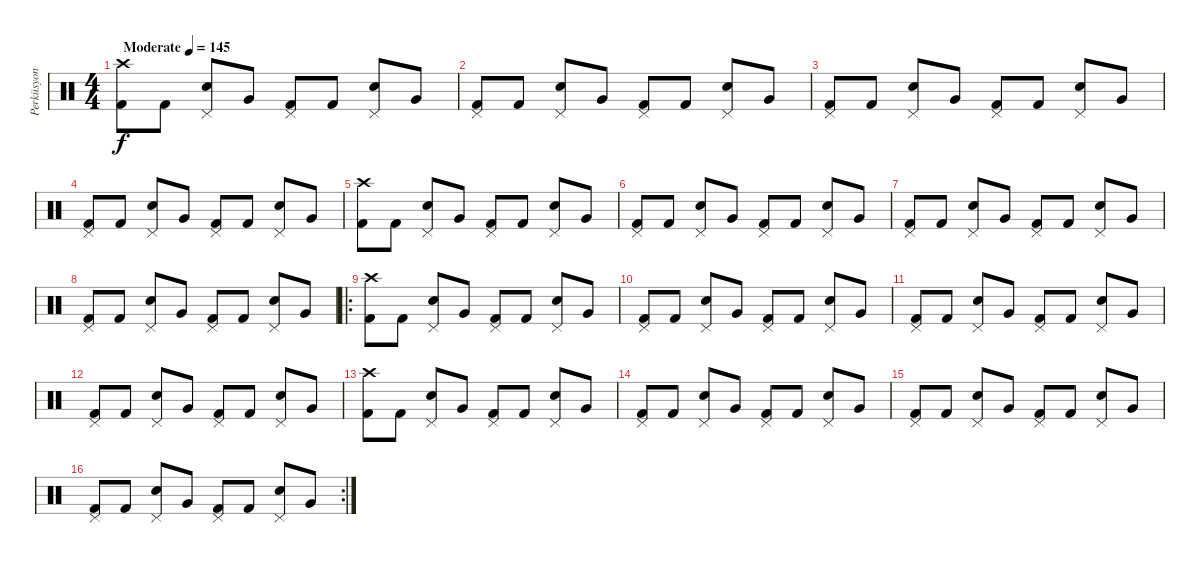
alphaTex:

\track ("Perküsyon" "Perküsyon") {instrument percussion}
\staff {score}
\articulation defaults
\ts (4 4)
\tempo (145 "Moderate")
\clef neutral
\ks c
("Crash high (hit)" "Kick (hit) 2").8{dy f} "Kick (hit) 2".8 ("Pedal Hi-Hat (hit)" "Snare (hit) 2").8 "Very Low Tom (hit)".8 ("Pedal Hi-Hat (hit)" "Kick (hit) 2").8 "Kick (hit) 2".8 ("Pedal Hi-Hat (hit)" "Snare (hit) 2").8 "Very Low Tom (hit)".8 |
("Pedal Hi-Hat (hit)" "Kick (hit) 2").8 "Kick (hit) 2".8 ("Pedal Hi-Hat (hit)" "Snare (hit) 2").8 "Very Low Tom (hit)".8 ("Pedal Hi-Hat (hit)" "Kick (hit) 2").8 "Kick (hit) 2".8 ("Pedal Hi-Hat (hit)" "Snare (hit) 2").8 "Very Low Tom (hit)".8 |
("Pedal Hi-Hat (hit)" "Kick (hit) 2").8 "Kick (hit) 2".8 ("Pedal Hi-Hat (hit)" "Snare (hit) 2").8 "Very Low Tom (hit)".8 ("Pedal Hi-Hat (hit)" "Kick (hit) 2").8 "Kick (hit) 2".8 ("Pedal Hi-Hat (hit)" "Snare (hit) 2").8 "Very Low Tom (hit)".8 |
("Pedal Hi-Hat (hit)" "Kick (hit) 2").8 "Kick (hit) 2".8 ("Pedal Hi-Hat (hit)" "Snare (hit) 2").8 "Very Low Tom (hit)".8 ("Pedal Hi-Hat (hit)" "Kick (hit) 2").8 "Kick (hit) 2".8 ("Pedal Hi-Hat (hit)" "Snare (hit) 2").8 "Very Low Tom (hit)".8 |
("Crash high (hit)" "Kick (hit) 2").8 "Kick (hit) 2".8 ("Pedal Hi-Hat (hit)" "Snare (hit) 2").8 "Very Low Tom (hit)".8 ("Pedal Hi-Hat (hit)" "Kick (hit) 2").8 "Kick (hit) 2".8 ("Pedal Hi-Hat (hit)" "Snare (hit) 2").8 "Very Low Tom (hit)".8 |
("Pedal Hi-Hat (hit)" "Kick (hit) 2").8 "Kick (hit) 2".8 ("Pedal Hi-Hat (hit)" "Snare (hit) 2").8 "Very Low Tom (hit)".8 ("Pedal Hi-Hat (hit)" "Kick (hit) 2").8 "Kick (hit) 2".8 ("Pedal Hi-Hat (hit)" "Snare (hit) 2").8 "Very Low Tom (hit)".8 |
("Pedal Hi-Hat (hit)" "Kick (hit) 2").8 "Kick (hit) 2".8 ("Pedal Hi-Hat (hit)" "Snare (hit) 2").8 "Very Low Tom (hit)".8 ("Pedal Hi-Hat (hit)" "Kick (hit) 2").8 "Kick (hit) 2".8 ("Pedal Hi-Hat (hit)" "Snare (hit) 2").8 "Very Low Tom (hit)".8 |
("Pedal Hi-Hat (hit)" "Kick (hit) 2").8 "Kick (hit) 2".8 ("Pedal Hi-Hat (hit)" "Snare (hit) 2").8 "Very Low Tom (hit)".8 ("Pedal Hi-Hat (hit)" "Kick (hit) 2").8 "Kick (hit) 2".8 ("Pedal Hi-Hat (hit)" "Snare (hit) 2").8 "Very Low Tom (hit)".8 |
\ro
("Crash high (hit)" "Kick (hit) 2").8 "Kick (hit) 2".8 ("Pedal Hi-Hat (hit)" "Snare (hit) 2").8 "Very Low Tom (hit)".8 ("Pedal Hi-Hat (hit)" "Kick (hit) 2").8 "Kick (hit) 2".8 ("Pedal Hi-Hat (hit)" "Snare (hit) 2").8 "Very Low Tom (hit)".8 |
("Pedal Hi-Hat (hit)" "Kick (hit) 2").8 "Kick (hit) 2".8 ("Pedal Hi-Hat (hit)" "Snare (hit) 2").8 "Very Low Tom (hit)".8 ("Pedal Hi-Hat (hit)" "Kick (hit) 2").8 "Kick (hit) 2".8 ("Pedal Hi-Hat (hit)" "Snare (hit) 2").8 "Very Low Tom (hit)".8 |
("Pedal Hi-Hat (hit)" "Kick (hit) 2").8 "Kick (hit) 2".8 ("Pedal Hi-Hat (hit)" "Snare (hit) 2").8 "Very Low Tom (hit)".8 ("Pedal Hi-Hat (hit)" "Kick (hit) 2").8 "Kick (hit) 2".8 ("Pedal Hi-Hat (hit)" "Snare (hit) 2").8 "Very Low Tom (hit)".8 |
("Pedal Hi-Hat (hit)" "Kick (hit) 2").8 "Kick (hit) 2".8 ("Pedal Hi-Hat (hit)" "Snare (hit) 2").8 "Very Low Tom (hit)".8 ("Pedal Hi-Hat (hit)" "Kick (hit) 2").8 "Kick (hit) 2".8 ("Pedal Hi-Hat (hit)" "Snare (hit) 2").8 "Very Low Tom (hit)".8 |
("Crash high (hit)" "Kick (hit) 2").8 "Kick (hit) 2".8 ("Pedal Hi-Hat (hit)" "Snare (hit) 2").8 "Very Low Tom (hit)".8 ("Pedal Hi-Hat (hit)" "Kick (hit) 2").8 "Kick (hit) 2".8 ("Pedal Hi-Hat (hit)" "Snare (hit) 2").8 "Very Low Tom (hit)".8 |
("Pedal Hi-Hat (hit)" "Kick (hit) 2").8 "Kick (hit) 2".8 ("Pedal Hi-Hat (hit)" "Snare (hit) 2").8 "Very Low Tom (hit)".8 ("Pedal Hi-Hat (hit)" "Kick (hit) 2").8 "Kick (hit) 2".8 ("Pedal Hi-Hat (hit)" "Snare (hit) 2").8 "Very Low Tom (hit)".8 |
("Pedal Hi-Hat (hit)" "Kick (hit) 2").8 "Kick (hit) 2".8 ("Pedal Hi-Hat (hit)" "Snare (hit) 2").8 "Very Low Tom (hit)".8 ("Pedal Hi-Hat (hit)" "Kick (hit) 2").8 "Kick (hit) 2".8 ("Pedal Hi-Hat (hit)" "Snare (hit) 2").8 "Very Low Tom (hit)".8 |
\rc 2
("Pedal Hi-Hat (hit)" "Kick (hit) 2").8 "Kick (hit) 2".8 ("Pedal Hi-Hat (hit)" "Snare (hit) 2").8 "Very Low Tom (hit)".8 ("Pedal Hi-Hat (hit)" "Kick (hit) 2").8 "Kick (hit) 2".8 ("Pedal Hi-Hat (hit)" "Snare (hit) 2").8 "Very Low Tom (hit)".8
